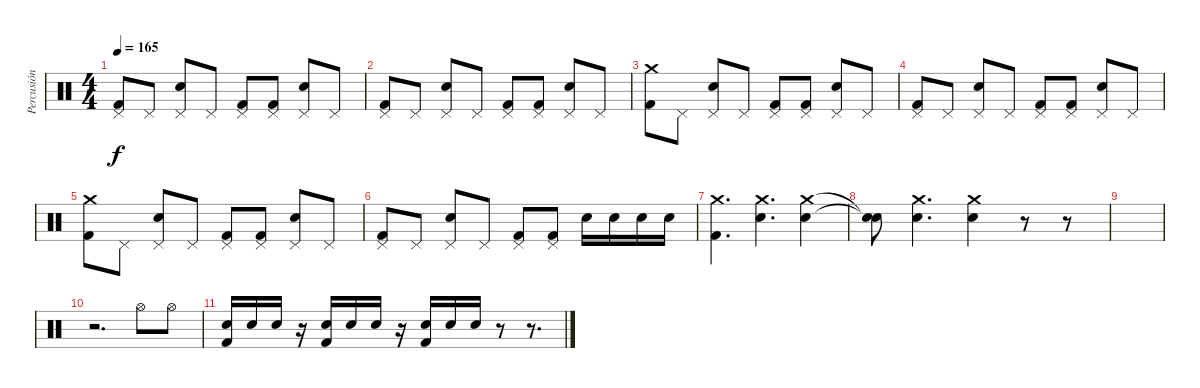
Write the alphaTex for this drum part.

\track ("Percusión" "Percusión") {instrument percussion}
\staff {score}
\articulation defaults
\ts (4 4)
\tempo 165
\clef neutral
\ks c
("Pedal Hi-Hat (hit)" "Kick (hit) 2").8{dy f} "Pedal Hi-Hat (hit)".8 ("Pedal Hi-Hat (hit)" "Electric Snare (hit)").8 "Pedal Hi-Hat (hit)".8 ("Pedal Hi-Hat (hit)" "Kick (hit) 2").8 ("Pedal Hi-Hat (hit)" "Kick (hit) 2").8 ("Pedal Hi-Hat (hit)" "Electric Snare (hit)").8 "Pedal Hi-Hat (hit)".8 |
("Pedal Hi-Hat (hit)" "Kick (hit) 2").8 "Pedal Hi-Hat (hit)".8 ("Pedal Hi-Hat (hit)" "Electric Snare (hit)").8 "Pedal Hi-Hat (hit)".8 ("Pedal Hi-Hat (hit)" "Kick (hit) 2").8 ("Pedal Hi-Hat (hit)" "Kick (hit) 2").8 ("Pedal Hi-Hat (hit)" "Electric Snare (hit)").8 "Pedal Hi-Hat (hit)".8 |
("Crash medium (hit)" "Kick (hit) 2").8 "Pedal Hi-Hat (hit)".8 ("Pedal Hi-Hat (hit)" "Electric Snare (hit)").8 "Pedal Hi-Hat (hit)".8 ("Pedal Hi-Hat (hit)" "Kick (hit) 2").8 ("Pedal Hi-Hat (hit)" "Kick (hit) 2").8 ("Pedal Hi-Hat (hit)" "Electric Snare (hit)").8 "Pedal Hi-Hat (hit)".8 |
("Pedal Hi-Hat (hit)" "Kick (hit) 2").8 "Pedal Hi-Hat (hit)".8 ("Pedal Hi-Hat (hit)" "Electric Snare (hit)").8 "Pedal Hi-Hat (hit)".8 ("Pedal Hi-Hat (hit)" "Kick (hit) 2").8 ("Pedal Hi-Hat (hit)" "Kick (hit) 2").8 ("Pedal Hi-Hat (hit)" "Electric Snare (hit)").8 "Pedal Hi-Hat (hit)".8 |
("Crash medium (hit)" "Kick (hit) 2").8 "Pedal Hi-Hat (hit)".8 ("Pedal Hi-Hat (hit)" "Electric Snare (hit)").8 "Pedal Hi-Hat (hit)".8 ("Pedal Hi-Hat (hit)" "Kick (hit) 2").8 ("Pedal Hi-Hat (hit)" "Kick (hit) 2").8 ("Pedal Hi-Hat (hit)" "Electric Snare (hit)").8 "Pedal Hi-Hat (hit)".8 |
("Pedal Hi-Hat (hit)" "Kick (hit) 2").8 "Pedal Hi-Hat (hit)".8 ("Pedal Hi-Hat (hit)" "Electric Snare (hit)").8 "Pedal Hi-Hat (hit)".8 ("Pedal Hi-Hat (hit)" "Kick (hit) 2").8 ("Pedal Hi-Hat (hit)" "Kick (hit) 2").8 "Electric Snare (hit)".16 "Electric Snare (hit)".16 "Electric Snare (hit)".16 "Electric Snare (hit)".16 |
("Crash medium (hit)" "Kick (hit) 2").4{d} ("Crash medium (hit)" "Electric Snare (hit)").4{d} ("Crash medium (hit)" "Electric Snare (hit)").4 |
("Snare (hit)"{t} "Snare (hit)"{t}).8 ("Crash medium (hit)" "Electric Snare (hit)").4{d} ("Crash medium (hit)" "Electric Snare (hit)").4 r.8 r.8 |
|
r.2{d} "Hi-Hat (open)".8 "Hi-Hat (open)".8 |
("Electric Snare (hit)" "Kick (hit) 2").16 "Electric Snare (hit)".16 "Electric Snare (hit)".16 r.16 ("Electric Snare (hit)" "Kick (hit) 2").16 "Electric Snare (hit)".16 "Electric Snare (hit)".16 r.16 ("Electric Snare (hit)" "Kick (hit) 2").16 "Electric Snare (hit)".16 "Electric Snare (hit)".16 r.8 r.8{d}
